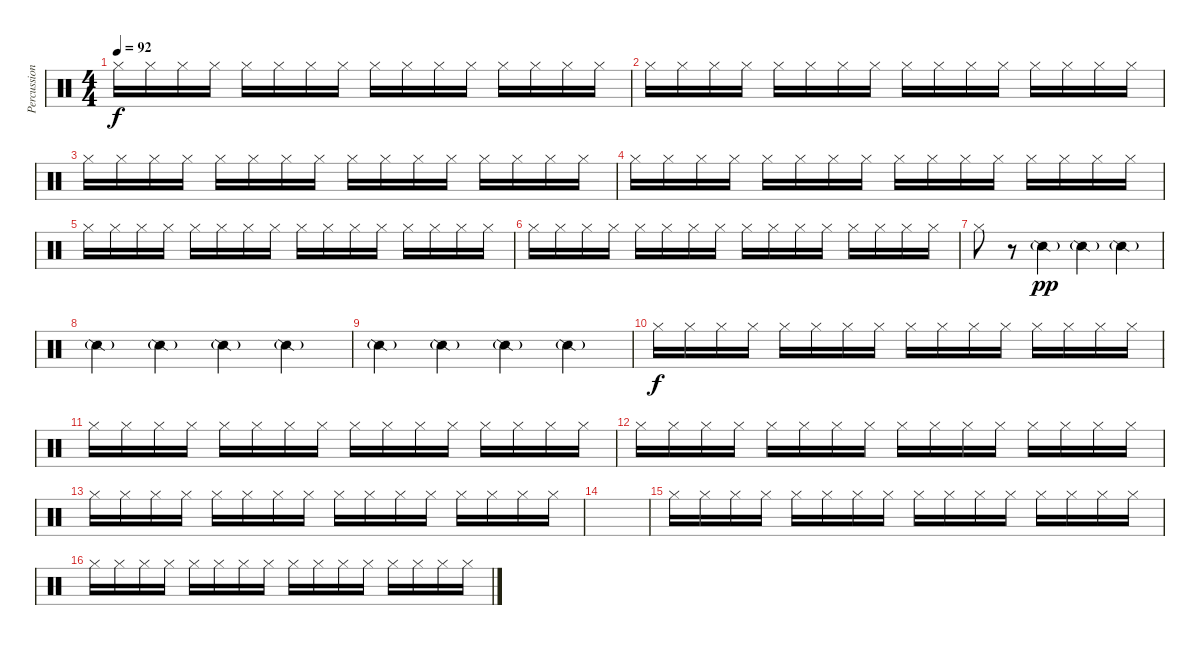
\track ("Percussion" "Percussion") {instrument percussion}
\staff {score}
\articulation defaults
\ts (4 4)
\tempo 92
\clef neutral
\ks c "Hi-Hat (closed)".16{dy f} "Hi-Hat (closed)".16 "Hi-Hat (closed)".16 "Hi-Hat (closed)".16 "Hi-Hat (closed)".16 "Hi-Hat (closed)".16 "Hi-Hat (closed)".16 "Hi-Hat (closed)".16 "Hi-Hat (closed)".16 "Hi-Hat (closed)".16 "Hi-Hat (closed)".16 "Hi-Hat (closed)".16 "Hi-Hat (closed)".16 "Hi-Hat (closed)".16 "Hi-Hat (closed)".16 "Hi-Hat (closed)".16
|
"Hi-Hat (closed)".16 "Hi-Hat (closed)".16 "Hi-Hat (closed)".16 "Hi-Hat (closed)".16 "Hi-Hat (closed)".16 "Hi-Hat (closed)".16 "Hi-Hat (closed)".16 "Hi-Hat (closed)".16 "Hi-Hat (closed)".16 "Hi-Hat (closed)".16 "Hi-Hat (closed)".16 "Hi-Hat (closed)".16 "Hi-Hat (closed)".16 "Hi-Hat (closed)".16 "Hi-Hat (closed)".16 "Hi-Hat (closed)".16 |
"Hi-Hat (closed)".16 "Hi-Hat (closed)".16 "Hi-Hat (closed)".16 "Hi-Hat (closed)".16 "Hi-Hat (closed)".16 "Hi-Hat (closed)".16 "Hi-Hat (closed)".16 "Hi-Hat (closed)".16 "Hi-Hat (closed)".16 "Hi-Hat (closed)".16 "Hi-Hat (closed)".16 "Hi-Hat (closed)".16 "Hi-Hat (closed)".16 "Hi-Hat (closed)".16 "Hi-Hat (closed)".16 "Hi-Hat (closed)".16 |
"Hi-Hat (closed)".16 "Hi-Hat (closed)".16 "Hi-Hat (closed)".16 "Hi-Hat (closed)".16 "Hi-Hat (closed)".16 "Hi-Hat (closed)".16 "Hi-Hat (closed)".16 "Hi-Hat (closed)".16 "Hi-Hat (closed)".16 "Hi-Hat (closed)".16 "Hi-Hat (closed)".16 "Hi-Hat (closed)".16 "Hi-Hat (closed)".16 "Hi-Hat (closed)".16 "Hi-Hat (closed)".16 "Hi-Hat (closed)".16 |
"Hi-Hat (closed)".16 "Hi-Hat (closed)".16 "Hi-Hat (closed)".16 "Hi-Hat (closed)".16 "Hi-Hat (closed)".16 "Hi-Hat (closed)".16 "Hi-Hat (closed)".16 "Hi-Hat (closed)".16 "Hi-Hat (closed)".16 "Hi-Hat (closed)".16 "Hi-Hat (closed)".16 "Hi-Hat (closed)".16 "Hi-Hat (closed)".16 "Hi-Hat (closed)".16 "Hi-Hat (closed)".16 "Hi-Hat (closed)".16 |
"Hi-Hat (closed)".16 "Hi-Hat (closed)".16 "Hi-Hat (closed)".16 "Hi-Hat (closed)".16 "Hi-Hat (closed)".16 "Hi-Hat (closed)".16 "Hi-Hat (closed)".16 "Hi-Hat (closed)".16 "Hi-Hat (closed)".16 "Hi-Hat (closed)".16 "Hi-Hat (closed)".16 "Hi-Hat (closed)".16 "Hi-Hat (closed)".16 "Hi-Hat (closed)".16 "Hi-Hat (closed)".16 "Hi-Hat (closed)".16 |
"Hi-Hat (closed)".8 r.8 "Snare (side stick) 2"{g}.4{dy pp} "Snare (side stick) 2"{g}.4 "Snare (side stick) 2"{g}.4 |
"Snare (side stick) 2"{g}.4 "Snare (side stick) 2"{g}.4 "Snare (side stick) 2"{g}.4 "Snare (side stick) 2"{g}.4 |
"Snare (side stick) 2"{g}.4 "Snare (side stick) 2"{g}.4 "Snare (side stick) 2"{g}.4 "Snare (side stick) 2"{g}.4 |
"Hi-Hat (closed)".16{dy f} "Hi-Hat (closed)".16 "Hi-Hat (closed)".16 "Hi-Hat (closed)".16 "Hi-Hat (closed)".16 "Hi-Hat (closed)".16 "Hi-Hat (closed)".16 "Hi-Hat (closed)".16 "Hi-Hat (closed)".16 "Hi-Hat (closed)".16 "Hi-Hat (closed)".16 "Hi-Hat (closed)".16 "Hi-Hat (closed)".16 "Hi-Hat (closed)".16 "Hi-Hat (closed)".16 "Hi-Hat (closed)".16 |
"Hi-Hat (closed)".16 "Hi-Hat (closed)".16 "Hi-Hat (closed)".16 "Hi-Hat (closed)".16 "Hi-Hat (closed)".16 "Hi-Hat (closed)".16 "Hi-Hat (closed)".16 "Hi-Hat (closed)".16 "Hi-Hat (closed)".16 "Hi-Hat (closed)".16 "Hi-Hat (closed)".16 "Hi-Hat (closed)".16 "Hi-Hat (closed)".16 "Hi-Hat (closed)".16 "Hi-Hat (closed)".16 "Hi-Hat (closed)".16 |
"Hi-Hat (closed)".16 "Hi-Hat (closed)".16 "Hi-Hat (closed)".16 "Hi-Hat (closed)".16 "Hi-Hat (closed)".16 "Hi-Hat (closed)".16 "Hi-Hat (closed)".16 "Hi-Hat (closed)".16 "Hi-Hat (closed)".16 "Hi-Hat (closed)".16 "Hi-Hat (closed)".16 "Hi-Hat (closed)".16 "Hi-Hat (closed)".16 "Hi-Hat (closed)".16 "Hi-Hat (closed)".16 "Hi-Hat (closed)".16 |
"Hi-Hat (closed)".16 "Hi-Hat (closed)".16 "Hi-Hat (closed)".16 "Hi-Hat (closed)".16 "Hi-Hat (closed)".16 "Hi-Hat (closed)".16 "Hi-Hat (closed)".16 "Hi-Hat (closed)".16 "Hi-Hat (closed)".16 "Hi-Hat (closed)".16 "Hi-Hat (closed)".16 "Hi-Hat (closed)".16 "Hi-Hat (closed)".16 "Hi-Hat (closed)".16 "Hi-Hat (closed)".16 "Hi-Hat (closed)".16 |
|
"Hi-Hat (closed)".16 "Hi-Hat (closed)".16 "Hi-Hat (closed)".16 "Hi-Hat (closed)".16 "Hi-Hat (closed)".16 "Hi-Hat (closed)".16 "Hi-Hat (closed)".16 "Hi-Hat (closed)".16 "Hi-Hat (closed)".16 "Hi-Hat (closed)".16 "Hi-Hat (closed)".16 "Hi-Hat (closed)".16 "Hi-Hat (closed)".16 "Hi-Hat (closed)".16 "Hi-Hat (closed)".16 "Hi-Hat (closed)".16 |
"Hi-Hat (closed)".16 "Hi-Hat (closed)".16 "Hi-Hat (closed)".16 "Hi-Hat (closed)".16 "Hi-Hat (closed)".16 "Hi-Hat (closed)".16 "Hi-Hat (closed)".16 "Hi-Hat (closed)".16 "Hi-Hat (closed)".16 "Hi-Hat (closed)".16 "Hi-Hat (closed)".16 "Hi-Hat (closed)".16 "Hi-Hat (closed)".16 "Hi-Hat (closed)".16 "Hi-Hat (closed)".16 "Hi-Hat (closed)".16
